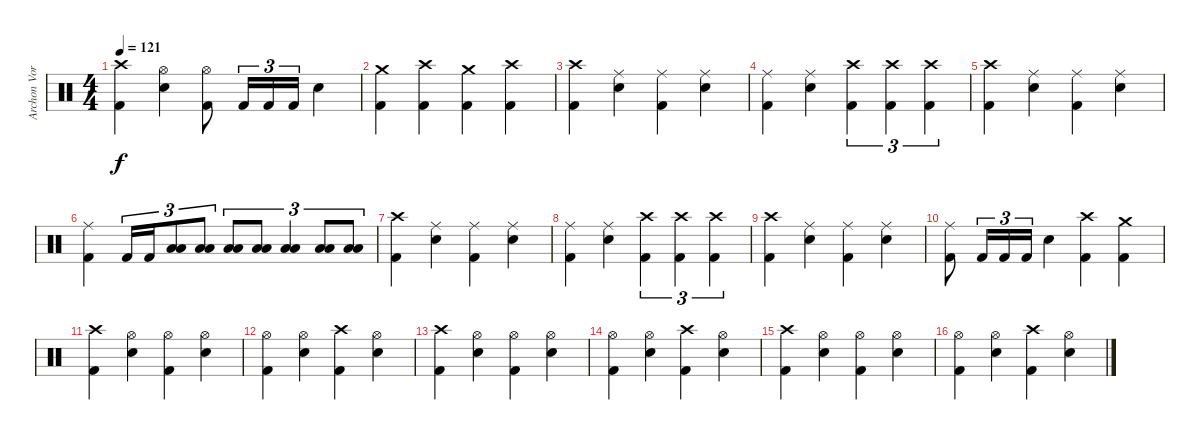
\track ("Archon Vorskaath" "Archon Vor") {instrument percussion}
\staff {score}
\articulation defaults
\ts (4 4)
\tempo 121
\clef neutral
\ks c
("Crash high (hit)" "Kick (hit) 2").4{dy f} ("Hi-Hat (open)" "Electric Snare (hit)").4 ("Hi-Hat (open)" "Kick (hit) 2").8 "Kick (hit) 2".16{tu (3 2)} "Kick (hit) 2".16{tu (3 2)} "Kick (hit) 2".16{tu (3 2)} "Electric Snare (hit)".4 |
("Crash medium (hit)" "Kick (hit) 2").4 ("Crash high (hit)" "Kick (hit) 2").4 ("Crash medium (hit)" "Kick (hit) 2").4 ("Crash high (hit)" "Kick (hit) 2").4 |
("Crash high (hit)" "Kick (hit) 2").4 ("Ride (middle)" "Electric Snare (hit)").4 ("Ride (middle)" "Kick (hit) 2").4 ("Ride (middle)" "Electric Snare (hit)").4 |
("Ride (middle)" "Kick (hit) 2").4 ("Ride (middle)" "Electric Snare (hit)").4 ("Crash high (hit)" "Kick (hit) 2").4{tu (3 2)} ("Crash high (hit)" "Kick (hit) 2").4{tu (3 2)} ("Crash high (hit)" "Kick (hit) 2").4{tu (3 2)} |
("Crash high (hit)" "Kick (hit) 2").4 ("Ride (middle)" "Electric Snare (hit)").4 ("Ride (middle)" "Kick (hit) 2").4 ("Ride (middle)" "Electric Snare (hit)").4 |
("Ride (middle)" "Kick (hit) 2").4 "Kick (hit) 2".16{tu (3 2)} "Kick (hit) 2".16{tu (3 2)} ("Low Tom (hit)" "Low Floor Tom (hit)").8{tu (3 2)} ("Low Tom (hit)" "Low Floor Tom (hit)").8{tu (3 2)} ("Low Tom (hit)" "Low Floor Tom (hit)").8{tu (3 2)} ("Low Tom (hit)" "Low Floor Tom (hit)").8{tu (3 2)} ("Low Tom (hit)" "Low Floor Tom (hit)").4{tu (3 2)} ("Low Tom (hit)" "Low Floor Tom (hit)").8{tu (3 2)} ("Low Tom (hit)" "Low Floor Tom (hit)").8{tu (3 2)} |
("Crash high (hit)" "Kick (hit) 2").4 ("Ride (middle)" "Electric Snare (hit)").4 ("Ride (middle)" "Kick (hit) 2").4 ("Ride (middle)" "Electric Snare (hit)").4 |
("Ride (middle)" "Kick (hit) 2").4 ("Ride (middle)" "Electric Snare (hit)").4 ("Crash high (hit)" "Kick (hit) 2").4{tu (3 2)} ("Crash high (hit)" "Kick (hit) 2").4{tu (3 2)} ("Crash high (hit)" "Kick (hit) 2").4{tu (3 2)} |
("Crash high (hit)" "Kick (hit) 2").4 ("Ride (middle)" "Electric Snare (hit)").4 ("Ride (middle)" "Kick (hit) 2").4 ("Ride (middle)" "Electric Snare (hit)").4 |
("Ride (middle)" "Kick (hit) 2").8 "Kick (hit) 2".16{tu (3 2)} "Kick (hit) 2".16{tu (3 2)} "Kick (hit) 2".16{tu (3 2)} "Electric Snare (hit)".4 ("Crash high (hit)" "Kick (hit) 2").4 ("Crash medium (hit)" "Kick (hit) 2").4 |
("Crash high (hit)" "Kick (hit) 2").4 ("Hi-Hat (open)" "Electric Snare (hit)").4 ("Hi-Hat (open)" "Kick (hit) 2").4 ("Hi-Hat (open)" "Electric Snare (hit)").4 |
("Hi-Hat (open)" "Kick (hit) 2").4 ("Hi-Hat (open)" "Electric Snare (hit)").4 ("Crash high (hit)" "Kick (hit) 2").4 ("Hi-Hat (open)" "Electric Snare (hit)").4 |
("Crash high (hit)" "Kick (hit) 2").4 ("Hi-Hat (open)" "Electric Snare (hit)").4 ("Hi-Hat (open)" "Kick (hit) 2").4 ("Hi-Hat (open)" "Electric Snare (hit)").4 |
("Hi-Hat (open)" "Kick (hit) 2").4 ("Hi-Hat (open)" "Electric Snare (hit)").4 ("Crash high (hit)" "Kick (hit) 2").4 ("Hi-Hat (open)" "Electric Snare (hit)").4 |
("Crash high (hit)" "Kick (hit) 2").4 ("Hi-Hat (open)" "Electric Snare (hit)").4 ("Hi-Hat (open)" "Kick (hit) 2").4 ("Hi-Hat (open)" "Electric Snare (hit)").4 |
("Hi-Hat (open)" "Kick (hit) 2").4 ("Hi-Hat (open)" "Electric Snare (hit)").4 ("Crash high (hit)" "Kick (hit) 2").4 ("Hi-Hat (open)" "Electric Snare (hit)").4
